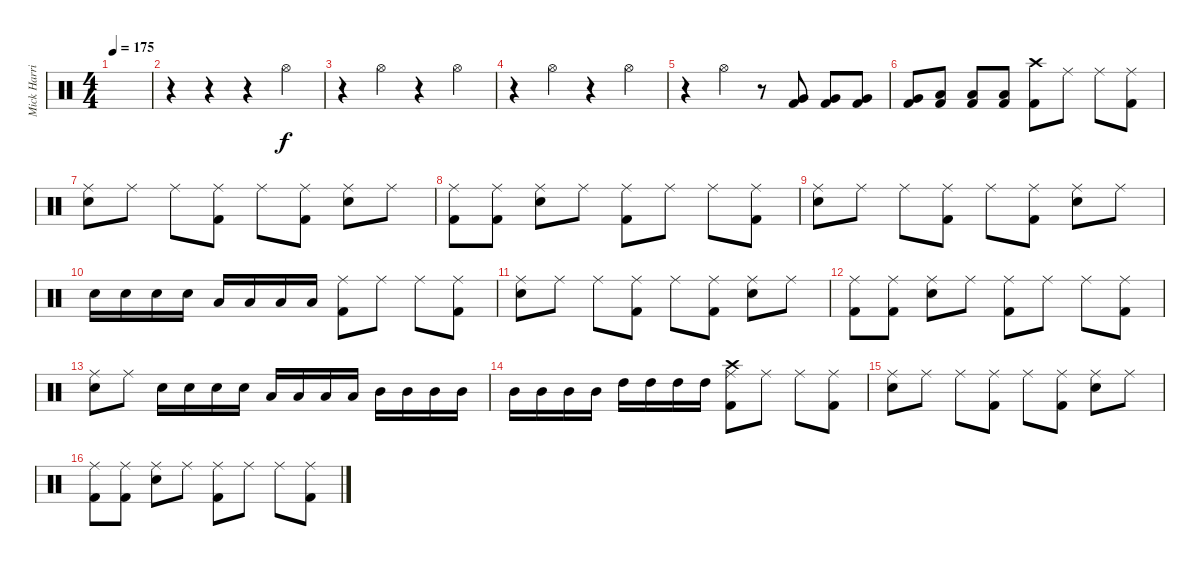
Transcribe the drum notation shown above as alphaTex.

\track ("Mick Harris (Drums)" "Mick Harri") {instrument percussion}
\staff {score}
\articulation defaults
\ts (4 4)
\tempo 175
\clef neutral
\ks c
|
r.4 r.4 r.4 "Hi-Hat (open)".4 |
r.4 "Hi-Hat (open)".4 r.4 "Hi-Hat (open)".4 |
r.4 "Hi-Hat (open)".4 r.4 "Hi-Hat (open)".4 |
r.4 "Hi-Hat (open)".4 r.8 ("Kick (hit) 2" "Very Low Tom (hit)").8 ("Kick (hit) 2" "Very Low Tom (hit)").8 ("Kick (hit) 2" "Very Low Tom (hit)").8 |
("Kick (hit) 2" "Very Low Tom (hit)").8 ("Kick (hit) 2" "Low Floor Tom (hit)").8 ("Kick (hit) 2" "Low Floor Tom (hit)").8 ("Kick (hit) 2" "Low Floor Tom (hit)").8 ("Kick (hit) 2" "Crash high (hit)").8 "Ride (middle)".8 "Ride (middle)".8 ("Kick (hit) 2" "Ride (middle)").8 |
("Electric Snare (hit)" "Ride (middle)").8 "Ride (middle)".8 "Ride (middle)".8 ("Kick (hit) 2" "Ride (middle)").8 "Ride (middle)".8 ("Kick (hit) 2" "Ride (middle)").8 ("Electric Snare (hit)" "Ride (middle)").8 "Ride (middle)".8 |
("Kick (hit) 2" "Ride (middle)").8 ("Kick (hit) 2" "Ride (middle)").8 ("Electric Snare (hit)" "Ride (middle)").8 "Ride (middle)".8 ("Kick (hit) 2" "Ride (middle)").8 "Ride (middle)".8 "Ride (middle)".8 ("Kick (hit) 2" "Ride (middle)").8 |
("Electric Snare (hit)" "Ride (middle)").8 "Ride (middle)".8 "Ride (middle)".8 ("Kick (hit) 2" "Ride (middle)").8 "Ride (middle)".8 ("Kick (hit) 2" "Ride (middle)").8 ("Electric Snare (hit)" "Ride (middle)").8 "Ride (middle)".8 |
"Electric Snare (hit)".16 "Electric Snare (hit)".16 "Electric Snare (hit)".16 "Electric Snare (hit)".16 "Low Tom (hit)".16 "Low Tom (hit)".16 "Low Tom (hit)".16 "Low Tom (hit)".16 ("Kick (hit) 2" "Ride (middle)").8 "Ride (middle)".8 "Ride (middle)".8 ("Kick (hit) 2" "Ride (middle)").8 |
("Electric Snare (hit)" "Ride (middle)").8 "Ride (middle)".8 "Ride (middle)".8 ("Kick (hit) 2" "Ride (middle)").8 "Ride (middle)".8 ("Kick (hit) 2" "Ride (middle)").8 ("Electric Snare (hit)" "Ride (middle)").8 "Ride (middle)".8 |
("Kick (hit) 2" "Ride (middle)").8 ("Kick (hit) 2" "Ride (middle)").8 ("Electric Snare (hit)" "Ride (middle)").8 "Ride (middle)".8 ("Kick (hit) 2" "Ride (middle)").8 "Ride (middle)".8 "Ride (middle)".8 ("Kick (hit) 2" "Ride (middle)").8 |
("Electric Snare (hit)" "Ride (middle)").8 "Ride (middle)".8 "Electric Snare (hit)".16 "Electric Snare (hit)".16 "Electric Snare (hit)".16 "Electric Snare (hit)".16 "Low Tom (hit)".16 "Low Tom (hit)".16 "Low Tom (hit)".16 "Low Tom (hit)".16 "Mid Tom (hit)".16 "Mid Tom (hit)".16 "Mid Tom (hit)".16 "Mid Tom (hit)".16 |
"Mid Tom (hit)".16 "Mid Tom (hit)".16 "Mid Tom (hit)".16 "Mid Tom (hit)".16 "High Tom (hit)".16 "High Tom (hit)".16 "High Tom (hit)".16 "High Tom (hit)".16 ("Kick (hit) 2" "Crash high (hit)" "Ride (middle)").8 "Ride (middle)".8 "Ride (middle)".8 ("Kick (hit) 2" "Ride (middle)").8 |
("Electric Snare (hit)" "Ride (middle)").8 "Ride (middle)".8 "Ride (middle)".8 ("Kick (hit) 2" "Ride (middle)").8 "Ride (middle)".8 ("Kick (hit) 2" "Ride (middle)").8 ("Electric Snare (hit)" "Ride (middle)").8 "Ride (middle)".8 |
("Kick (hit) 2" "Ride (middle)").8 ("Kick (hit) 2" "Ride (middle)").8 ("Electric Snare (hit)" "Ride (middle)").8 "Ride (middle)".8 ("Kick (hit) 2" "Ride (middle)").8 "Ride (middle)".8 "Ride (middle)".8 ("Kick (hit) 2" "Ride (middle)").8
